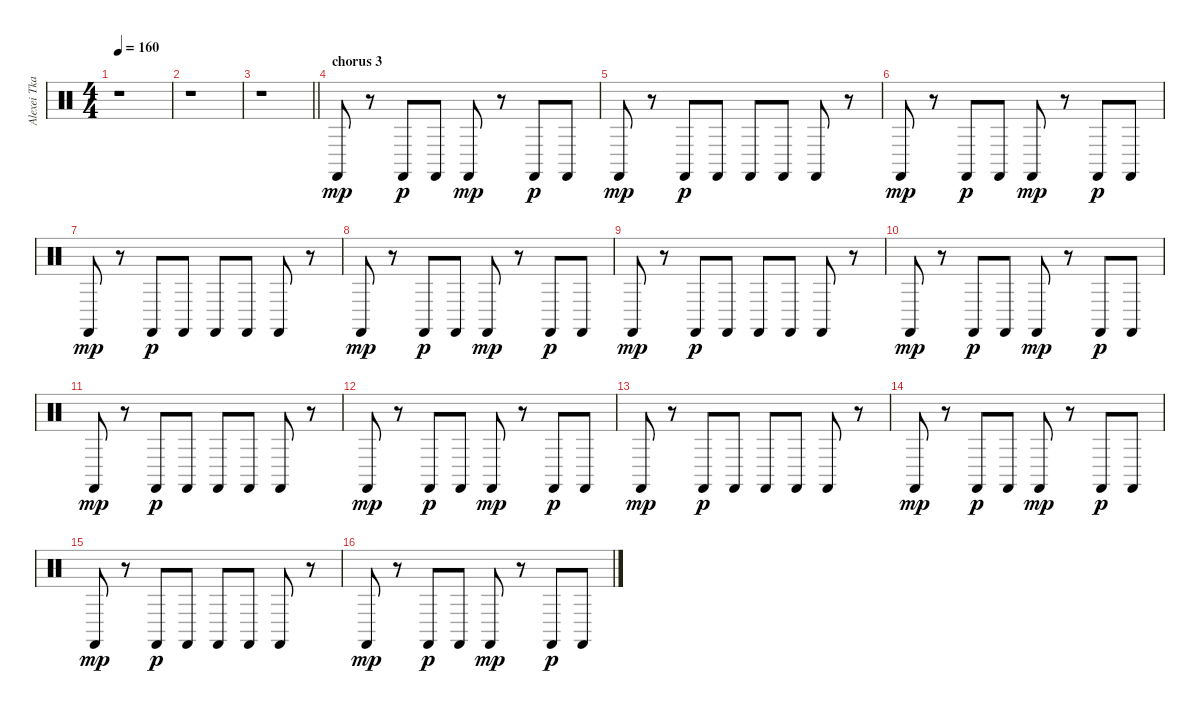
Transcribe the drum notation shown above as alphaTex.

\track ("Alexei Tkachevskiy " "Alexei Tka") {instrument percussion}
\staff {score}
\articulation defaults
\ts (4 4)
\tempo 160
\clef neutral
\ks c
r.1{dy pp} |
r.1 |
\barLineRight lightlight
r.1 |
\section ("" "chorus 3")
"Castanets (hit)".8{dy mp} r.8 "Castanets (hit)".8{dy p} "Castanets (hit)".8 "Castanets (hit)".8{dy mp} r.8 "Castanets (hit)".8{dy p} "Castanets (hit)".8 |
"Castanets (hit)".8{dy mp} r.8 "Castanets (hit)".8{dy p} "Castanets (hit)".8 "Castanets (hit)".8 "Castanets (hit)".8 "Castanets (hit)".8 r.8 |
"Castanets (hit)".8{dy mp} r.8 "Castanets (hit)".8{dy p} "Castanets (hit)".8 "Castanets (hit)".8{dy mp} r.8 "Castanets (hit)".8{dy p} "Castanets (hit)".8 |
"Castanets (hit)".8{dy mp} r.8 "Castanets (hit)".8{dy p} "Castanets (hit)".8 "Castanets (hit)".8 "Castanets (hit)".8 "Castanets (hit)".8 r.8 |
"Castanets (hit)".8{dy mp} r.8 "Castanets (hit)".8{dy p} "Castanets (hit)".8 "Castanets (hit)".8{dy mp} r.8 "Castanets (hit)".8{dy p} "Castanets (hit)".8 |
"Castanets (hit)".8{dy mp} r.8 "Castanets (hit)".8{dy p} "Castanets (hit)".8 "Castanets (hit)".8 "Castanets (hit)".8 "Castanets (hit)".8 r.8 |
"Castanets (hit)".8{dy mp} r.8 "Castanets (hit)".8{dy p} "Castanets (hit)".8 "Castanets (hit)".8{dy mp} r.8 "Castanets (hit)".8{dy p} "Castanets (hit)".8 |
"Castanets (hit)".8{dy mp} r.8 "Castanets (hit)".8{dy p} "Castanets (hit)".8 "Castanets (hit)".8 "Castanets (hit)".8 "Castanets (hit)".8 r.8 |
"Castanets (hit)".8{dy mp} r.8 "Castanets (hit)".8{dy p} "Castanets (hit)".8 "Castanets (hit)".8{dy mp} r.8 "Castanets (hit)".8{dy p} "Castanets (hit)".8 |
"Castanets (hit)".8{dy mp} r.8 "Castanets (hit)".8{dy p} "Castanets (hit)".8 "Castanets (hit)".8 "Castanets (hit)".8 "Castanets (hit)".8 r.8 |
"Castanets (hit)".8{dy mp} r.8 "Castanets (hit)".8{dy p} "Castanets (hit)".8 "Castanets (hit)".8{dy mp} r.8 "Castanets (hit)".8{dy p} "Castanets (hit)".8 |
"Castanets (hit)".8{dy mp} r.8 "Castanets (hit)".8{dy p} "Castanets (hit)".8 "Castanets (hit)".8 "Castanets (hit)".8 "Castanets (hit)".8 r.8 |
"Castanets (hit)".8{dy mp} r.8 "Castanets (hit)".8{dy p} "Castanets (hit)".8 "Castanets (hit)".8{dy mp} r.8 "Castanets (hit)".8{dy p} "Castanets (hit)".8
